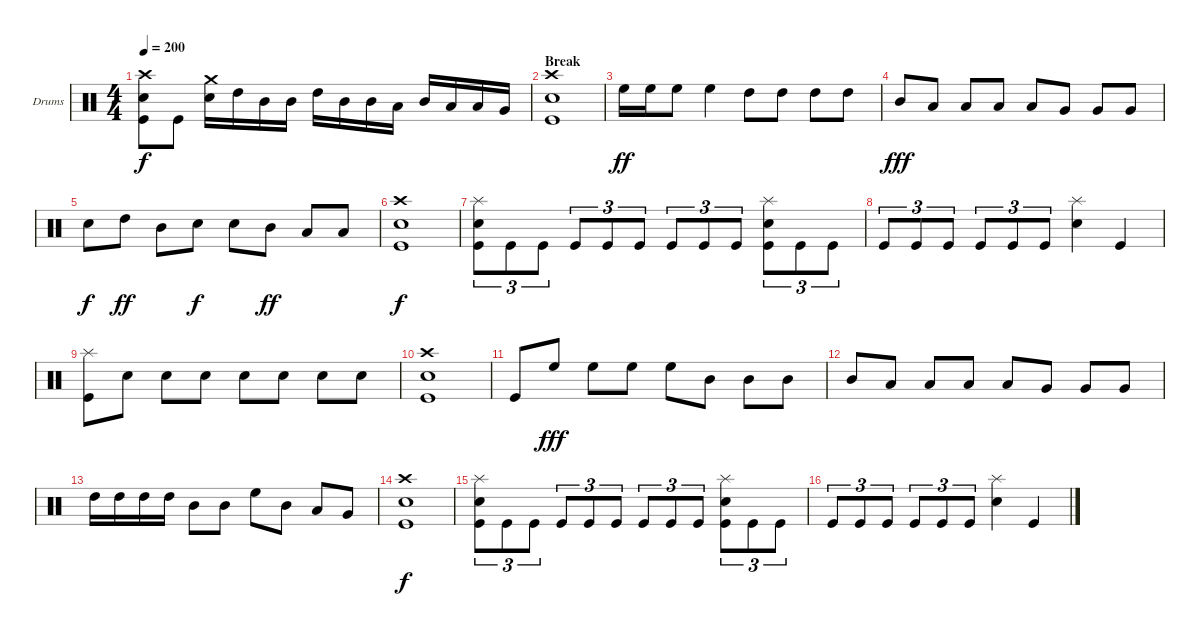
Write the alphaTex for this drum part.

\defaultSystemsLayout 4
\bracketExtendMode groupsimilarinstruments
\firstSystemTrackNameOrientation horizontal
\otherSystemsTrackNameOrientation horizontal
\track ("Drumkit" "Drums") {instrument percussion}
\staff {score}
\articulation defaults
\ts (4 4)
\tempo 200
\clef neutral
\ks c
("Crash high (hit)" "Snare (hit) 2" "Kick (hit)").8{dy f} "Kick (hit)".8 ("Crash medium (hit)" "Snare (hit) 2").16 "High Tom (hit)".16 "Mid Tom (hit)".16 "Mid Tom (hit)".16 "High Tom (hit)".16 "Mid Tom (hit)".16 "Mid Tom (hit)".16 "Low Tom (hit)".16 "Mid Tom (hit)".16 "Low Tom (hit)".16 "Low Tom (hit)".16 "Very Low Tom (hit)".16 |
\section ("" "Break")
("Kick (hit)" "Snare (hit) 2" "Crash high (hit)").1 |
"High Floor Tom (hit)".16{dy ff} "High Floor Tom (hit)".16 "High Floor Tom (hit)".8 "High Floor Tom (hit)".4 "High Tom (hit)".8 "High Tom (hit)".8 "High Tom (hit)".8 "High Tom (hit)".8 |
"Mid Tom (hit)".8{dy fff} "Low Tom (hit)".8 "Low Tom (hit)".8 "Low Tom (hit)".8 "Low Tom (hit)".8 "Very Low Tom (hit)".8 "Very Low Tom (hit)".8 "Very Low Tom (hit)".8 |
"Snare (hit) 2".8{dy f} "High Tom (hit)".8{dy ff} "Mid Tom (hit)".8 "Snare (hit) 2".8{dy f} "Snare (hit) 2".8 "Mid Tom (hit)".8{dy ff} "Low Tom (hit)".8 "Low Tom (hit)".8 |
("Kick (hit)" "Snare (hit) 2" "Crash high (hit)").1{dy f} |
("Splash (hit)" "Snare (hit) 2" "Kick (hit)").8{tu (3 2)} "Kick (hit)".8{tu (3 2)} "Kick (hit)".8{tu (3 2)} "Kick (hit)".8{tu (3 2)} "Kick (hit)".8{tu (3 2)} "Kick (hit)".8{tu (3 2)} "Kick (hit)".8{tu (3 2)} "Kick (hit)".8{tu (3 2)} "Kick (hit)".8{tu (3 2)} ("Splash (hit)" "Snare (hit) 2" "Kick (hit)").8{tu (3 2)} "Kick (hit)".8{tu (3 2)} "Kick (hit)".8{tu (3 2)} |
"Kick (hit)".8{tu (3 2)} "Kick (hit)".8{tu (3 2)} "Kick (hit)".8{tu (3 2)} "Kick (hit)".8{tu (3 2)} "Kick (hit)".8{tu (3 2)} "Kick (hit)".8{tu (3 2)} ("Splash (hit)" "Snare (hit) 2").4 "Kick (hit)".4 |
("Splash (hit)" "Kick (hit)").8 "Snare (hit) 2".8 "Snare (hit) 2".8 "Snare (hit) 2".8 "Snare (hit) 2".8 "Snare (hit) 2".8 "Snare (hit) 2".8 "Snare (hit) 2".8 |
("Kick (hit)" "Snare (hit) 2" "Crash high (hit)").1 |
"Kick (hit)".8 "High Floor Tom (hit)".8{dy fff} "High Floor Tom (hit)".8 "High Floor Tom (hit)".8 "High Floor Tom (hit)".8 "Mid Tom (hit)".8 "Mid Tom (hit)".8 "Mid Tom (hit)".8 |
"Mid Tom (hit)".8 "Low Tom (hit)".8 "Low Tom (hit)".8 "Low Tom (hit)".8 "Low Tom (hit)".8 "Very Low Tom (hit)".8 "Very Low Tom (hit)".8 "Very Low Tom (hit)".8 |
"High Tom (hit)".16 "High Tom (hit)".16 "High Tom (hit)".16 "High Tom (hit)".16 "Mid Tom (hit)".8 "Mid Tom (hit)".8 "High Floor Tom (hit)".8 "Mid Tom (hit)".8 "Low Tom (hit)".8 "Very Low Tom (hit)".8 |
("Kick (hit)" "Snare (hit) 2" "Crash high (hit)").1{dy f} |
("Splash (hit)" "Snare (hit) 2" "Kick (hit)").8{tu (3 2)} "Kick (hit)".8{tu (3 2)} "Kick (hit)".8{tu (3 2)} "Kick (hit)".8{tu (3 2)} "Kick (hit)".8{tu (3 2)} "Kick (hit)".8{tu (3 2)} "Kick (hit)".8{tu (3 2)} "Kick (hit)".8{tu (3 2)} "Kick (hit)".8{tu (3 2)} ("Splash (hit)" "Snare (hit) 2" "Kick (hit)").8{tu (3 2)} "Kick (hit)".8{tu (3 2)} "Kick (hit)".8{tu (3 2)} |
"Kick (hit)".8{tu (3 2)} "Kick (hit)".8{tu (3 2)} "Kick (hit)".8{tu (3 2)} "Kick (hit)".8{tu (3 2)} "Kick (hit)".8{tu (3 2)} "Kick (hit)".8{tu (3 2)} ("Splash (hit)" "Snare (hit) 2").4 "Kick (hit)".4
